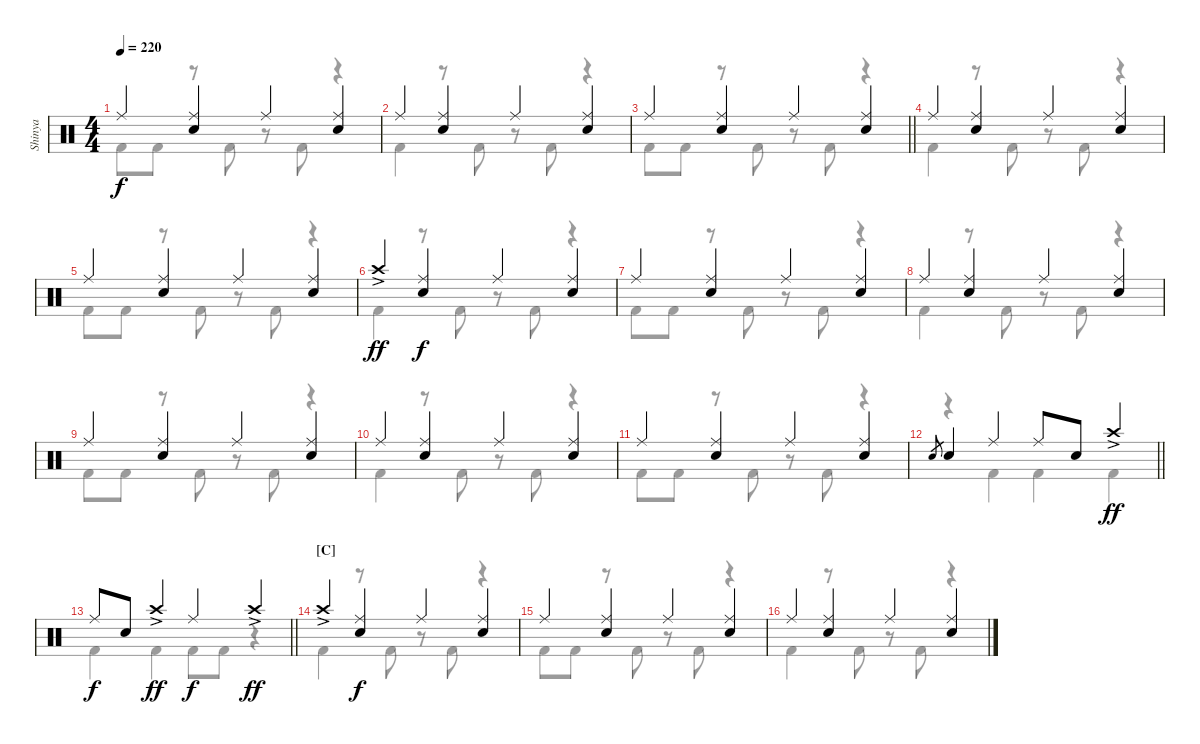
\track ("Shinya" "Shinya") {instrument percussion}
\staff {score}
\articulation defaults
\voice
\ts (4 4)
\tempo 220
\clef neutral
\ks c "Ride (middle)".4{dy f}
("Ride (middle)" "Snare (hit) 2").4 "Ride (middle)".4 ("Ride (middle)" "Snare (hit) 2").4 |
"Ride (middle)".4 ("Ride (middle)" "Snare (hit) 2").4 "Ride (middle)".4 ("Ride (middle)" "Snare (hit) 2").4 |
\barLineRight lightlight "Ride (middle)".4
("Ride (middle)" "Snare (hit) 2").4 "Ride (middle)".4 ("Ride (middle)" "Snare (hit) 2").4 |
"Ride (middle)".4 ("Ride (middle)" "Snare (hit) 2").4 "Ride (middle)".4 ("Ride (middle)" "Snare (hit) 2").4 |
"Ride (middle)".4 ("Ride (middle)" "Snare (hit) 2").4 "Ride (middle)".4 ("Ride (middle)" "Snare (hit) 2").4 |
"Crash high (hit)"{ac}.4{dy ff} ("Ride (middle)" "Snare (hit) 2").4{dy f} "Ride (middle)".4 ("Ride (middle)" "Snare (hit) 2").4 |
"Ride (middle)".4 ("Ride (middle)" "Snare (hit) 2").4 "Ride (middle)".4 ("Ride (middle)" "Snare (hit) 2").4 |
"Ride (middle)".4 ("Ride (middle)" "Snare (hit) 2").4 "Ride (middle)".4 ("Ride (middle)" "Snare (hit) 2").4 |
"Ride (middle)".4 ("Ride (middle)" "Snare (hit) 2").4 "Ride (middle)".4 ("Ride (middle)" "Snare (hit) 2").4 |
"Ride (middle)".4 ("Ride (middle)" "Snare (hit) 2").4 "Ride (middle)".4 ("Ride (middle)" "Snare (hit) 2").4 |
"Ride (middle)".4 ("Ride (middle)" "Snare (hit) 2").4 "Ride (middle)".4 ("Ride (middle)" "Snare (hit) 2").4 |
\barLineRight lightlight "Snare (hit) 2"{h}.8{gr} "Snare (hit) 2".4 "Ride (middle)".4 "Ride (middle)".8 "Snare (hit) 2".8 "Crash high (hit)"{ac}.4{dy ff}
|
\barLineRight lightlight "Ride (middle)".8{dy f} "Snare (hit) 2".8 "Crash high (hit)"{ac}.4{dy ff} "Ride (middle)".4{dy f} "Crash high (hit)"{ac}.4{dy ff}
|
\section ("" "[C]")
"Crash high (hit)"{ac}.4 ("Ride (middle)" "Snare (hit) 2").4{dy f} "Ride (middle)".4 ("Ride (middle)" "Snare (hit) 2").4 |
"Ride (middle)".4 ("Ride (middle)" "Snare (hit) 2").4 "Ride (middle)".4 ("Ride (middle)" "Snare (hit) 2").4 |
"Ride (middle)".4 ("Ride (middle)" "Snare (hit) 2").4 "Ride (middle)".4 ("Ride (middle)" "Snare (hit) 2").4
\voice
\clef neutral
\ottava regular
\simile none
\ks c "Kick (hit) 2".8{dy f} "Kick (hit) 2".8
r.8 "Kick (hit) 2".8 r.8 "Kick (hit) 2".8 r.4 |
"Kick (hit) 2".4 r.8 "Kick (hit) 2".8 r.8 "Kick (hit) 2".8 r.4 |
\barLineRight lightlight "Kick (hit) 2".8 "Kick (hit) 2".8
r.8 "Kick (hit) 2".8 r.8 "Kick (hit) 2".8 r.4 |
"Kick (hit) 2".4 r.8 "Kick (hit) 2".8 r.8 "Kick (hit) 2".8 r.4 |
"Kick (hit) 2".8 "Kick (hit) 2".8 r.8 "Kick (hit) 2".8 r.8 "Kick (hit) 2".8 r.4 |
"Kick (hit) 2".4 r.8 "Kick (hit) 2".8 r.8 "Kick (hit) 2".8 r.4 |
"Kick (hit) 2".8 "Kick (hit) 2".8 r.8 "Kick (hit) 2".8 r.8 "Kick (hit) 2".8 r.4 |
"Kick (hit) 2".4 r.8 "Kick (hit) 2".8 r.8 "Kick (hit) 2".8 r.4 |
"Kick (hit) 2".8 "Kick (hit) 2".8 r.8 "Kick (hit) 2".8 r.8 "Kick (hit) 2".8 r.4 |
"Kick (hit) 2".4 r.8 "Kick (hit) 2".8 r.8 "Kick (hit) 2".8 r.4 |
"Kick (hit) 2".8 "Kick (hit) 2".8 r.8 "Kick (hit) 2".8 r.8 "Kick (hit) 2".8 r.4 |
\barLineRight lightlight
r.4 "Kick (hit) 2".4 "Kick (hit) 2".4 "Kick (hit) 2".4 |
\barLineRight lightlight "Kick (hit) 2".4 "Kick (hit) 2".4 "Kick (hit) 2".8 "Kick (hit) 2".8
r.4 |
"Kick (hit) 2".4 r.8 "Kick (hit) 2".8 r.8 "Kick (hit) 2".8 r.4 |
"Kick (hit) 2".8 "Kick (hit) 2".8 r.8 "Kick (hit) 2".8 r.8 "Kick (hit) 2".8 r.4 |
"Kick (hit) 2".4 r.8 "Kick (hit) 2".8 r.8 "Kick (hit) 2".8 r.4
